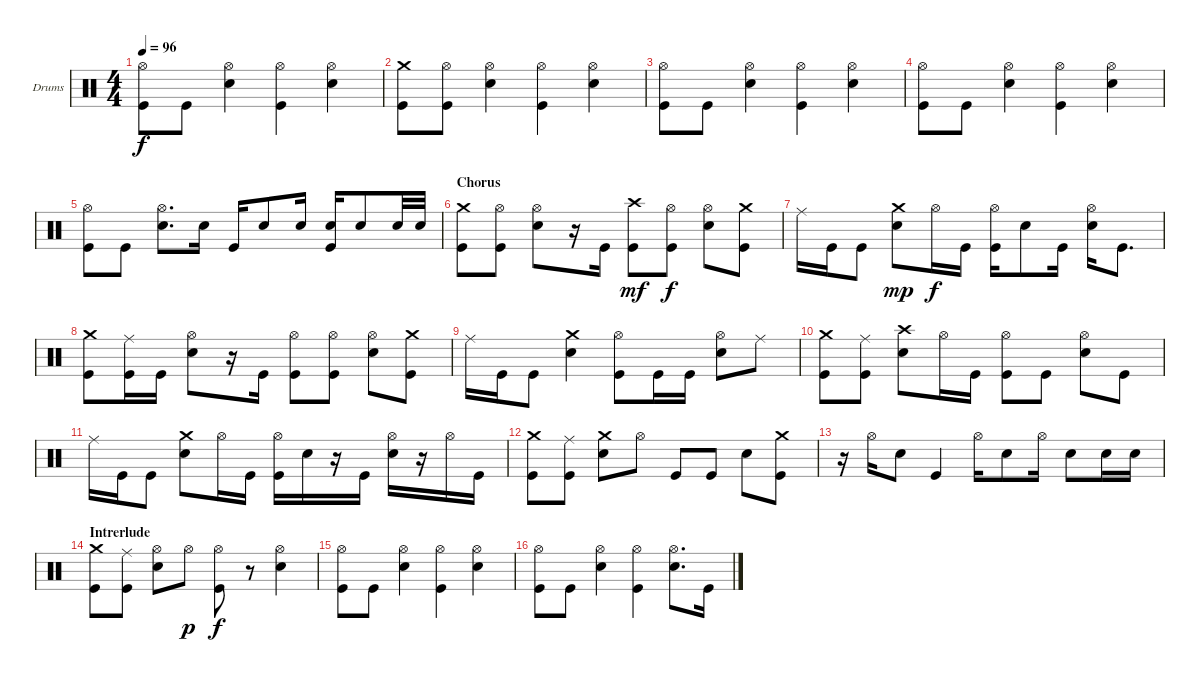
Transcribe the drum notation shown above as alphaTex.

\defaultSystemsLayout 4
\bracketExtendMode nobrackets
\firstSystemTrackNameOrientation horizontal
\otherSystemsTrackNameOrientation horizontal
\track ("Dave Abbruzzese" "Drums") {solo instrument percussion}
\staff {score}
\articulation defaults
\ts (4 4)
\tempo 96
\clef neutral
\ks c
("Hi-Hat (open)" "Kick (hit)").8{dy f} "Kick (hit)".8 ("Hi-Hat (open)" "Snare (hit) 2").4 ("Hi-Hat (open)" "Kick (hit)").4 ("Hi-Hat (open)" "Snare (hit) 2").4 |
("Crash medium (hit)" "Kick (hit)").8 ("Hi-Hat (open)" "Kick (hit)").8 ("Hi-Hat (open)" "Snare (hit) 2").4 ("Hi-Hat (open)" "Kick (hit)").4 ("Hi-Hat (open)" "Snare (hit) 2").4 |
("Hi-Hat (open)" "Kick (hit)").8 "Kick (hit)".8 ("Hi-Hat (open)" "Snare (hit) 2").4 ("Hi-Hat (open)" "Kick (hit)").4 ("Hi-Hat (open)" "Snare (hit) 2").4 |
("Hi-Hat (open)" "Kick (hit)").8 "Kick (hit)".8 ("Hi-Hat (open)" "Snare (hit) 2").4 ("Hi-Hat (open)" "Kick (hit)").4 ("Hi-Hat (open)" "Snare (hit) 2").4 |
("Hi-Hat (open)" "Kick (hit)").8 "Kick (hit)".8 ("Hi-Hat (open)" "Snare (hit) 2").8{d} "Snare (hit) 2".16 "Kick (hit)".16 "Snare (hit) 2".8 "Snare (hit) 2".16 ("Snare (hit) 2" "Kick (hit)").16 "Snare (hit) 2".8 "Snare (hit) 2".32 "Snare (hit) 2".32 |
\section ("" "Chorus")
("Crash medium (hit)" "Kick (hit)").8 ("Hi-Hat (open)" "Kick (hit)").8 ("Hi-Hat (open)" "Snare (hit) 2").8 r.16 "Kick (hit)".16 ("Crash high (hit)" "Kick (hit)").8{dy mf} ("Hi-Hat (open)" "Kick (hit)").8{dy f} ("Hi-Hat (open)" "Snare (hit) 2").8 ("Crash medium (hit)" "Kick (hit)").8 |
"Ride (middle)".16 "Kick (hit)".16 "Kick (hit)".8 ("Crash medium (hit)" "Snare (hit) 2").8{dy mp} "Hi-Hat (open)".16{dy f} "Kick (hit)".16 ("Hi-Hat (open)" "Kick (hit)").16 "Snare (hit) 2".8 "Kick (hit)".16 ("Hi-Hat (open)" "Snare (hit) 2").16 "Kick (hit)".8{d} |
("Crash medium (hit)" "Kick (hit)").8 ("Ride (middle)" "Kick (hit)").16 "Kick (hit)".16 ("Hi-Hat (open)" "Snare (hit) 2").8 r.16 "Kick (hit)".16 ("Hi-Hat (open)" "Kick (hit)").8 ("Hi-Hat (open)" "Kick (hit)").8 ("Hi-Hat (open)" "Snare (hit) 2").8 ("Crash medium (hit)" "Kick (hit)").8 |
"Ride (middle)".16 "Kick (hit)".16 "Kick (hit)".8 ("Crash medium (hit)" "Snare (hit) 2").4 ("Hi-Hat (open)" "Kick (hit)").8 "Kick (hit)".16 "Kick (hit)".16 ("Hi-Hat (open)" "Snare (hit) 2").8 "Ride (middle)".8 |
("Crash medium (hit)" "Kick (hit)").8 ("Ride (middle)" "Kick (hit)").8 ("Crash high (hit)" "Snare (hit) 2").8 "Hi-Hat (open)".16 "Kick (hit)".16 ("Hi-Hat (open)" "Kick (hit)").8 "Kick (hit)".8 ("Hi-Hat (open)" "Snare (hit) 2").8 "Kick (hit)".8 |
"Ride (middle)".16 "Kick (hit)".16 "Kick (hit)".8 ("Crash medium (hit)" "Snare (hit) 2").8 "Hi-Hat (open)".16 "Kick (hit)".16 ("Hi-Hat (open)" "Kick (hit)").16 "Snare (hit) 2".16 r.16 "Kick (hit)".16 ("Hi-Hat (open)" "Snare (hit) 2").16 r.16 "Hi-Hat (open)".16 "Kick (hit)".16 |
("Crash medium (hit)" "Kick (hit)").8 ("Ride (middle)" "Kick (hit)").8 ("Crash medium (hit)" "Snare (hit) 2").8 "Hi-Hat (open)".8 "Kick (hit)".8 "Kick (hit)".8 "Snare (hit) 2".8 ("Crash medium (hit)" "Kick (hit)").8 |
r.16 "Hi-Hat (open)".16 "Snare (hit) 2".8 "Kick (hit)".4 "Hi-Hat (open)".16 "Snare (hit) 2".8 "Hi-Hat (open)".16 "Snare (hit) 2".8 "Snare (hit) 2".16 "Snare (hit) 2".16 |
\section ("" "Intrerlude")
("Crash medium (hit)" "Kick (hit)").8 ("Ride (middle)" "Kick (hit)").8 ("Hi-Hat (open)" "Snare (hit) 2").8 "Hi-Hat (open)".8{dy p} ("Hi-Hat (open)" "Kick (hit)").8{dy f} r.8 ("Hi-Hat (open)" "Snare (hit) 2").4 |
("Hi-Hat (open)" "Kick (hit)").8 "Kick (hit)".8 ("Hi-Hat (open)" "Snare (hit) 2").4 ("Hi-Hat (open)" "Kick (hit)").4 ("Hi-Hat (open)" "Snare (hit) 2").4 |
("Hi-Hat (open)" "Kick (hit)").8 "Kick (hit)".8 ("Hi-Hat (open)" "Snare (hit) 2").4 ("Hi-Hat (open)" "Kick (hit)").4 ("Hi-Hat (open)" "Snare (hit) 2").8{d} "Kick (hit)".16
